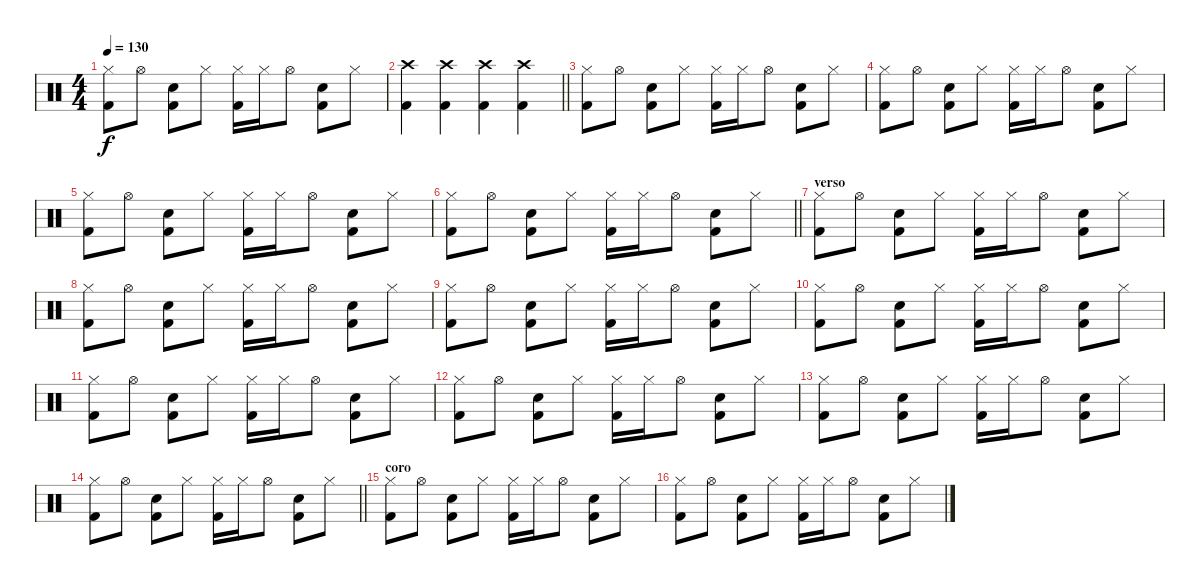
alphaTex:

\track "" {instrument percussion}
\staff {score}
\articulation defaults
\ts (4 4)
\tempo 130
\clef neutral
\ks c
("Hi-Hat (closed)" "Kick (hit) 2").8{dy f} "Hi-Hat (open)".8 ("Electric Snare (hit)" "Kick (hit) 2").8 "Hi-Hat (closed)".8 ("Hi-Hat (closed)" "Kick (hit) 2").16 "Hi-Hat (closed)".16 "Hi-Hat (open)".8 ("Electric Snare (hit)" "Kick (hit) 2").8 "Hi-Hat (closed)".8 |
\barLineRight lightlight
("Crash high (hit)" "Kick (hit) 2").4 ("Crash high (hit)" "Kick (hit) 2").4 ("Crash high (hit)" "Kick (hit) 2").4 ("Crash high (hit)" "Kick (hit) 2").4 |
\section ("" "")
("Hi-Hat (closed)" "Kick (hit) 2").8 "Hi-Hat (open)".8 ("Electric Snare (hit)" "Kick (hit) 2").8 "Hi-Hat (closed)".8 ("Hi-Hat (closed)" "Kick (hit) 2").16 "Hi-Hat (closed)".16 "Hi-Hat (open)".8 ("Electric Snare (hit)" "Kick (hit) 2").8 "Hi-Hat (closed)".8 |
("Hi-Hat (closed)" "Kick (hit) 2").8 "Hi-Hat (open)".8 ("Electric Snare (hit)" "Kick (hit) 2").8 "Hi-Hat (closed)".8 ("Hi-Hat (closed)" "Kick (hit) 2").16 "Hi-Hat (closed)".16 "Hi-Hat (open)".8 ("Electric Snare (hit)" "Kick (hit) 2").8 "Hi-Hat (closed)".8 |
("Hi-Hat (closed)" "Kick (hit) 2").8 "Hi-Hat (open)".8 ("Electric Snare (hit)" "Kick (hit) 2").8 "Hi-Hat (closed)".8 ("Hi-Hat (closed)" "Kick (hit) 2").16 "Hi-Hat (closed)".16 "Hi-Hat (open)".8 ("Electric Snare (hit)" "Kick (hit) 2").8 "Hi-Hat (closed)".8 |
\barLineRight lightlight
("Hi-Hat (closed)" "Kick (hit) 2").8 "Hi-Hat (open)".8 ("Electric Snare (hit)" "Kick (hit) 2").8 "Hi-Hat (closed)".8 ("Hi-Hat (closed)" "Kick (hit) 2").16 "Hi-Hat (closed)".16 "Hi-Hat (open)".8 ("Electric Snare (hit)" "Kick (hit) 2").8 "Hi-Hat (closed)".8 |
\section ("" "verso")
("Hi-Hat (closed)" "Kick (hit) 2").8 "Hi-Hat (open)".8 ("Electric Snare (hit)" "Kick (hit) 2").8 "Hi-Hat (closed)".8 ("Hi-Hat (closed)" "Kick (hit) 2").16 "Hi-Hat (closed)".16 "Hi-Hat (open)".8 ("Electric Snare (hit)" "Kick (hit) 2").8 "Hi-Hat (closed)".8 |
("Hi-Hat (closed)" "Kick (hit) 2").8 "Hi-Hat (open)".8 ("Electric Snare (hit)" "Kick (hit) 2").8 "Hi-Hat (closed)".8 ("Hi-Hat (closed)" "Kick (hit) 2").16 "Hi-Hat (closed)".16 "Hi-Hat (open)".8 ("Electric Snare (hit)" "Kick (hit) 2").8 "Hi-Hat (closed)".8 |
("Hi-Hat (closed)" "Kick (hit) 2").8 "Hi-Hat (open)".8 ("Electric Snare (hit)" "Kick (hit) 2").8 "Hi-Hat (closed)".8 ("Hi-Hat (closed)" "Kick (hit) 2").16 "Hi-Hat (closed)".16 "Hi-Hat (open)".8 ("Electric Snare (hit)" "Kick (hit) 2").8 "Hi-Hat (closed)".8 |
("Hi-Hat (closed)" "Kick (hit) 2").8 "Hi-Hat (open)".8 ("Electric Snare (hit)" "Kick (hit) 2").8 "Hi-Hat (closed)".8 ("Hi-Hat (closed)" "Kick (hit) 2").16 "Hi-Hat (closed)".16 "Hi-Hat (open)".8 ("Electric Snare (hit)" "Kick (hit) 2").8 "Hi-Hat (closed)".8 |
("Hi-Hat (closed)" "Kick (hit) 2").8 "Hi-Hat (open)".8 ("Electric Snare (hit)" "Kick (hit) 2").8 "Hi-Hat (closed)".8 ("Hi-Hat (closed)" "Kick (hit) 2").16 "Hi-Hat (closed)".16 "Hi-Hat (open)".8 ("Electric Snare (hit)" "Kick (hit) 2").8 "Hi-Hat (closed)".8 |
("Hi-Hat (closed)" "Kick (hit) 2").8 "Hi-Hat (open)".8 ("Electric Snare (hit)" "Kick (hit) 2").8 "Hi-Hat (closed)".8 ("Hi-Hat (closed)" "Kick (hit) 2").16 "Hi-Hat (closed)".16 "Hi-Hat (open)".8 ("Electric Snare (hit)" "Kick (hit) 2").8 "Hi-Hat (closed)".8 |
("Hi-Hat (closed)" "Kick (hit) 2").8 "Hi-Hat (open)".8 ("Electric Snare (hit)" "Kick (hit) 2").8 "Hi-Hat (closed)".8 ("Hi-Hat (closed)" "Kick (hit) 2").16 "Hi-Hat (closed)".16 "Hi-Hat (open)".8 ("Electric Snare (hit)" "Kick (hit) 2").8 "Hi-Hat (closed)".8 |
\barLineRight lightlight
("Hi-Hat (closed)" "Kick (hit) 2").8 "Hi-Hat (open)".8 ("Electric Snare (hit)" "Kick (hit) 2").8 "Hi-Hat (closed)".8 ("Hi-Hat (closed)" "Kick (hit) 2").16 "Hi-Hat (closed)".16 "Hi-Hat (open)".8 ("Electric Snare (hit)" "Kick (hit) 2").8 "Hi-Hat (closed)".8 |
\section ("" "coro")
("Hi-Hat (closed)" "Kick (hit) 2").8 "Hi-Hat (open)".8 ("Electric Snare (hit)" "Kick (hit) 2").8 "Hi-Hat (closed)".8 ("Hi-Hat (closed)" "Kick (hit) 2").16 "Hi-Hat (closed)".16 "Hi-Hat (open)".8 ("Electric Snare (hit)" "Kick (hit) 2").8 "Hi-Hat (closed)".8 |
("Hi-Hat (closed)" "Kick (hit) 2").8 "Hi-Hat (open)".8 ("Electric Snare (hit)" "Kick (hit) 2").8 "Hi-Hat (closed)".8 ("Hi-Hat (closed)" "Kick (hit) 2").16 "Hi-Hat (closed)".16 "Hi-Hat (open)".8 ("Electric Snare (hit)" "Kick (hit) 2").8 "Hi-Hat (closed)".8
